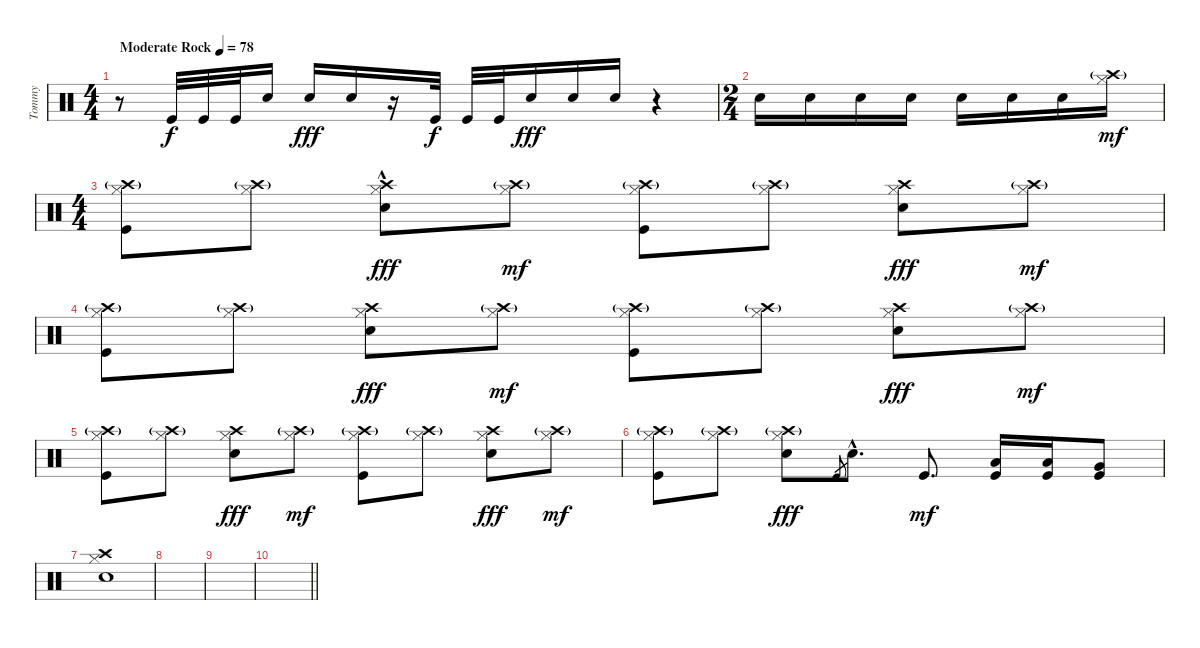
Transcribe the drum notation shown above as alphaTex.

\track ("Tommy" "Tommy") {instrument percussion}
\staff {score}
\articulation defaults
\ts (4 4)
\tempo (78 "Moderate Rock")
\clef neutral
\ks c
r.8{dy f} "Kick (hit)".32 "Kick (hit)".32 "Kick (hit)".32 "Electric Snare (hit)".16 "Electric Snare (hit)".16{dy fff} "Electric Snare (hit)".16 r.16 "Kick (hit)".32{dy f} "Kick (hit)".32 "Kick (hit)".32 "Electric Snare (hit)".16{dy fff} "Electric Snare (hit)".16 "Electric Snare (hit)".16 r.4 |
\ts (2 4)
"Electric Snare (hit)".16 "Electric Snare (hit)".16 "Electric Snare (hit)".16 "Electric Snare (hit)".16 "Electric Snare (hit)".16 "Electric Snare (hit)".16 "Electric Snare (hit)".16 ("Crash high (hit)"{g} "Hi-Hat (closed)").16{dy mf} |
\ts (4 4)
("Crash high (hit)"{g} "Hi-Hat (closed)" "Kick (hit)").8 ("Crash high (hit)"{g} "Hi-Hat (closed)").8 ("Crash high (hit)" "Hi-Hat (closed)" "Electric Snare (hit)"{hac}).8{dy fff} ("Crash high (hit)"{g} "Hi-Hat (closed)").8{dy mf} ("Crash high (hit)"{g} "Hi-Hat (closed)" "Kick (hit)").8 ("Crash high (hit)"{g} "Hi-Hat (closed)").8 ("Crash high (hit)" "Hi-Hat (closed)" "Electric Snare (hit)").8{dy fff} ("Crash high (hit)"{g} "Hi-Hat (closed)").8{dy mf} |
("Crash high (hit)"{g} "Hi-Hat (closed)" "Kick (hit)").8 ("Crash high (hit)"{g} "Hi-Hat (closed)").8 ("Crash high (hit)" "Hi-Hat (closed)" "Electric Snare (hit)").8{dy fff} ("Crash high (hit)"{g} "Hi-Hat (closed)").8{dy mf} ("Crash high (hit)"{g} "Hi-Hat (closed)" "Kick (hit)").8 ("Crash high (hit)"{g} "Hi-Hat (closed)").8 ("Crash high (hit)" "Hi-Hat (closed)" "Electric Snare (hit)").8{dy fff} ("Crash high (hit)"{g} "Hi-Hat (closed)").8{dy mf} |
("Crash high (hit)"{g} "Hi-Hat (closed)" "Kick (hit)").8 ("Crash high (hit)"{g} "Hi-Hat (closed)").8 ("Crash high (hit)" "Hi-Hat (closed)" "Electric Snare (hit)").8{dy fff} ("Crash high (hit)"{g} "Hi-Hat (closed)").8{dy mf} ("Crash high (hit)"{g} "Hi-Hat (closed)" "Kick (hit)").8 ("Crash high (hit)"{g} "Hi-Hat (closed)").8 ("Crash high (hit)" "Hi-Hat (closed)" "Electric Snare (hit)").8{dy fff} ("Crash high (hit)"{g} "Hi-Hat (closed)").8{dy mf} |
("Crash high (hit)"{g} "Hi-Hat (closed)" "Kick (hit)").8 ("Crash high (hit)"{g} "Hi-Hat (closed)").8 ("Crash high (hit)"{g} "Hi-Hat (closed)" "Electric Snare (hit)").8{dy fff} "Kick (hit)".8{gr} "Electric Snare (hit)"{hac}.8{d} "Kick (hit)".8{d dy mf} ("Low Tom (hit)" "Kick (hit)").16 ("Low Tom (hit)" "Kick (hit)").16 ("Very Low Tom (hit)" "Kick (hit)").8 |
("Crash high (hit)" "Electric Snare (hit)" "Hi-Hat (closed)").1 |
|
|
\barLineRight lightlight
